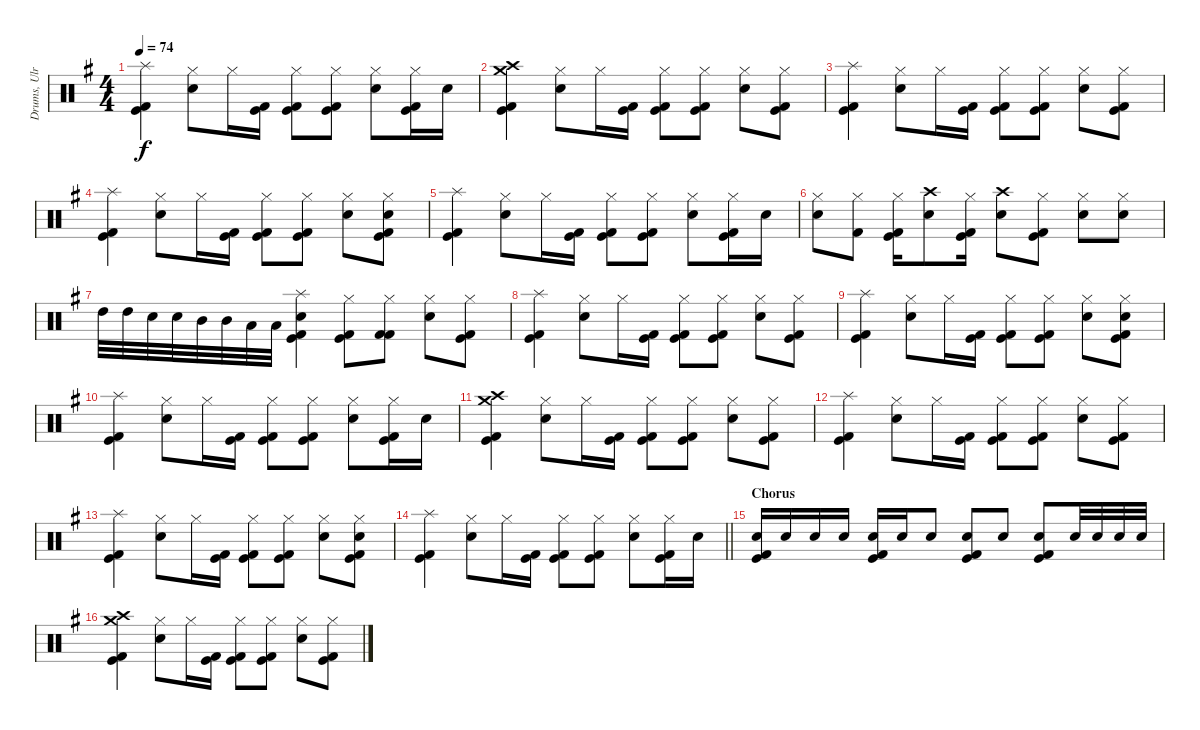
\track ("Drums, Ulrich" "Drums, Ulr") {instrument percussion}
\staff {score}
\articulation defaults
\ts (4 4)
\tempo 74
\clef neutral
\ks g
("Splash (hit)" "Kick (hit) 2" "Kick (hit)").4{dy f} ("Hi-Hat (closed)" "Electric Snare (hit)").8 "Hi-Hat (closed)".16 ("Kick (hit) 2" "Kick (hit)").16 ("Hi-Hat (closed)" "Kick (hit) 2" "Kick (hit)").8 ("Hi-Hat (closed)" "Kick (hit)" "Kick (hit) 2").8 ("Hi-Hat (closed)" "Electric Snare (hit)").8 ("Hi-Hat (closed)" "Kick (hit) 2" "Kick (hit)").16 "Electric Snare (hit)".16 |
("Crash medium (hit)" "Crash high (hit)" "Kick (hit) 2" "Kick (hit)").4 ("Hi-Hat (closed)" "Electric Snare (hit)").8 "Hi-Hat (closed)".16 ("Kick (hit) 2" "Kick (hit)").16 ("Hi-Hat (closed)" "Kick (hit) 2" "Kick (hit)").8 ("Hi-Hat (closed)" "Kick (hit)" "Kick (hit) 2").8 ("Hi-Hat (closed)" "Electric Snare (hit)").8 ("Hi-Hat (closed)" "Kick (hit) 2" "Kick (hit)").8 |
("Splash (hit)" "Kick (hit) 2" "Kick (hit)").4 ("Hi-Hat (closed)" "Electric Snare (hit)").8 "Hi-Hat (closed)".16 ("Kick (hit) 2" "Kick (hit)").16 ("Hi-Hat (closed)" "Kick (hit) 2" "Kick (hit)").8 ("Hi-Hat (closed)" "Kick (hit)" "Kick (hit) 2").8 ("Hi-Hat (closed)" "Electric Snare (hit)").8 ("Hi-Hat (closed)" "Kick (hit) 2" "Kick (hit)").8 |
("Splash (hit)" "Kick (hit) 2" "Kick (hit)").4 ("Hi-Hat (closed)" "Electric Snare (hit)").8 "Hi-Hat (closed)".16 ("Kick (hit) 2" "Kick (hit)").16 ("Hi-Hat (closed)" "Kick (hit) 2" "Kick (hit)").8 ("Hi-Hat (closed)" "Kick (hit)" "Kick (hit) 2").8 ("Hi-Hat (closed)" "Electric Snare (hit)").8 ("Hi-Hat (closed)" "Electric Snare (hit)" "Kick (hit) 2" "Kick (hit)").8 |
("Splash (hit)" "Kick (hit) 2" "Kick (hit)").4 ("Hi-Hat (closed)" "Electric Snare (hit)").8 "Hi-Hat (closed)".16 ("Kick (hit) 2" "Kick (hit)").16 ("Hi-Hat (closed)" "Kick (hit) 2" "Kick (hit)").8 ("Hi-Hat (closed)" "Kick (hit)" "Kick (hit) 2").8 ("Hi-Hat (closed)" "Electric Snare (hit)").8 ("Hi-Hat (closed)" "Kick (hit) 2" "Kick (hit)").16 "Electric Snare (hit)".16 |
("Hi-Hat (closed)" "Snare (hit) 2").8 ("Hi-Hat (closed)" "Kick (hit) 2").8 ("Hi-Hat (closed)" "Kick (hit) 2" "Kick (hit)").16 ("Crash high (hit)" "Snare (hit) 2").8 ("Hi-Hat (closed)" "Kick (hit) 2" "Kick (hit)").16 ("Crash high (hit)" "Snare (hit) 2").8 ("Hi-Hat (closed)" "Kick (hit) 2" "Kick (hit)").8 ("Hi-Hat (closed)" "Snare (hit) 2").8 ("Hi-Hat (closed)" "Snare (hit) 2").8 |
"High Tom (hit)".32 "High Tom (hit)".32 "Electric Snare (hit)".32 "Electric Snare (hit)".32 "Mid Tom (hit)".32 "Mid Tom (hit)".32 "Low Floor Tom (hit)".32 "Low Floor Tom (hit)".32 ("Splash (hit)" "Electric Snare (hit)" "Kick (hit) 2" "Kick (hit)").4 ("Hi-Hat (closed)" "Kick (hit) 2" "Kick (hit)").8 ("Hi-Hat (closed)" "Kick (hit) 2" "Kick (hit) 2").8 ("Hi-Hat (closed)" "Electric Snare (hit)").8 ("Hi-Hat (closed)" "Kick (hit) 2" "Kick (hit)").8 |
("Splash (hit)" "Kick (hit) 2" "Kick (hit)").4 ("Hi-Hat (closed)" "Electric Snare (hit)").8 "Hi-Hat (closed)".16 ("Kick (hit) 2" "Kick (hit)").16 ("Hi-Hat (closed)" "Kick (hit) 2" "Kick (hit)").8 ("Hi-Hat (closed)" "Kick (hit)" "Kick (hit) 2").8 ("Hi-Hat (closed)" "Electric Snare (hit)").8 ("Hi-Hat (closed)" "Kick (hit) 2" "Kick (hit)").8 |
("Splash (hit)" "Kick (hit) 2" "Kick (hit)").4 ("Hi-Hat (closed)" "Electric Snare (hit)").8 "Hi-Hat (closed)".16 ("Kick (hit) 2" "Kick (hit)").16 ("Hi-Hat (closed)" "Kick (hit) 2" "Kick (hit)").8 ("Hi-Hat (closed)" "Kick (hit)" "Kick (hit) 2").8 ("Hi-Hat (closed)" "Electric Snare (hit)").8 ("Hi-Hat (closed)" "Electric Snare (hit)" "Kick (hit) 2" "Kick (hit)").8 |
("Splash (hit)" "Kick (hit) 2" "Kick (hit)").4 ("Hi-Hat (closed)" "Electric Snare (hit)").8 "Hi-Hat (closed)".16 ("Kick (hit) 2" "Kick (hit)").16 ("Hi-Hat (closed)" "Kick (hit) 2" "Kick (hit)").8 ("Hi-Hat (closed)" "Kick (hit)" "Kick (hit) 2").8 ("Hi-Hat (closed)" "Electric Snare (hit)").8 ("Hi-Hat (closed)" "Kick (hit) 2" "Kick (hit)").16 "Electric Snare (hit)".16 |
("Crash medium (hit)" "Crash high (hit)" "Kick (hit) 2" "Kick (hit)").4 ("Hi-Hat (closed)" "Electric Snare (hit)").8 "Hi-Hat (closed)".16 ("Kick (hit) 2" "Kick (hit)").16 ("Hi-Hat (closed)" "Kick (hit) 2" "Kick (hit)").8 ("Hi-Hat (closed)" "Kick (hit)" "Kick (hit) 2").8 ("Hi-Hat (closed)" "Electric Snare (hit)").8 ("Hi-Hat (closed)" "Kick (hit) 2" "Kick (hit)").8 |
("Splash (hit)" "Kick (hit) 2" "Kick (hit)").4 ("Hi-Hat (closed)" "Electric Snare (hit)").8 "Hi-Hat (closed)".16 ("Kick (hit) 2" "Kick (hit)").16 ("Hi-Hat (closed)" "Kick (hit) 2" "Kick (hit)").8 ("Hi-Hat (closed)" "Kick (hit)" "Kick (hit) 2").8 ("Hi-Hat (closed)" "Electric Snare (hit)").8 ("Hi-Hat (closed)" "Kick (hit) 2" "Kick (hit)").8 |
("Splash (hit)" "Kick (hit) 2" "Kick (hit)").4 ("Hi-Hat (closed)" "Electric Snare (hit)").8 "Hi-Hat (closed)".16 ("Kick (hit) 2" "Kick (hit)").16 ("Hi-Hat (closed)" "Kick (hit) 2" "Kick (hit)").8 ("Hi-Hat (closed)" "Kick (hit)" "Kick (hit) 2").8 ("Hi-Hat (closed)" "Electric Snare (hit)").8 ("Hi-Hat (closed)" "Electric Snare (hit)" "Kick (hit) 2" "Kick (hit)").8 |
\barLineRight lightlight
("Splash (hit)" "Kick (hit) 2" "Kick (hit)").4 ("Hi-Hat (closed)" "Electric Snare (hit)").8 "Hi-Hat (closed)".16 ("Kick (hit) 2" "Kick (hit)").16 ("Hi-Hat (closed)" "Kick (hit) 2" "Kick (hit)").8 ("Hi-Hat (closed)" "Kick (hit)" "Kick (hit) 2").8 ("Hi-Hat (closed)" "Electric Snare (hit)").8 ("Hi-Hat (closed)" "Kick (hit) 2" "Kick (hit)").16 "Electric Snare (hit)".16 |
\section ("" "Chorus")
("Electric Snare (hit)" "Kick (hit) 2" "Kick (hit)").16 "Electric Snare (hit)".16 "Electric Snare (hit)".16 "Electric Snare (hit)".16 ("Electric Snare (hit)" "Kick (hit) 2" "Kick (hit)").16 "Electric Snare (hit)".16 "Electric Snare (hit)".8 ("Electric Snare (hit)" "Kick (hit) 2" "Kick (hit)").8 "Electric Snare (hit)".8 ("Electric Snare (hit)" "Kick (hit) 2" "Kick (hit)").8 "Electric Snare (hit)".32 "Electric Snare (hit)".32 "Electric Snare (hit)".32 "Electric Snare (hit)".32 |
("Crash medium (hit)" "Crash high (hit)" "Kick (hit) 2" "Kick (hit)").4 ("Hi-Hat (closed)" "Electric Snare (hit)").8 "Hi-Hat (closed)".16 ("Kick (hit) 2" "Kick (hit)").16 ("Hi-Hat (closed)" "Kick (hit) 2" "Kick (hit)").8 ("Hi-Hat (closed)" "Kick (hit)" "Kick (hit) 2").8 ("Hi-Hat (closed)" "Electric Snare (hit)").8 ("Hi-Hat (closed)" "Kick (hit) 2" "Kick (hit)").8
